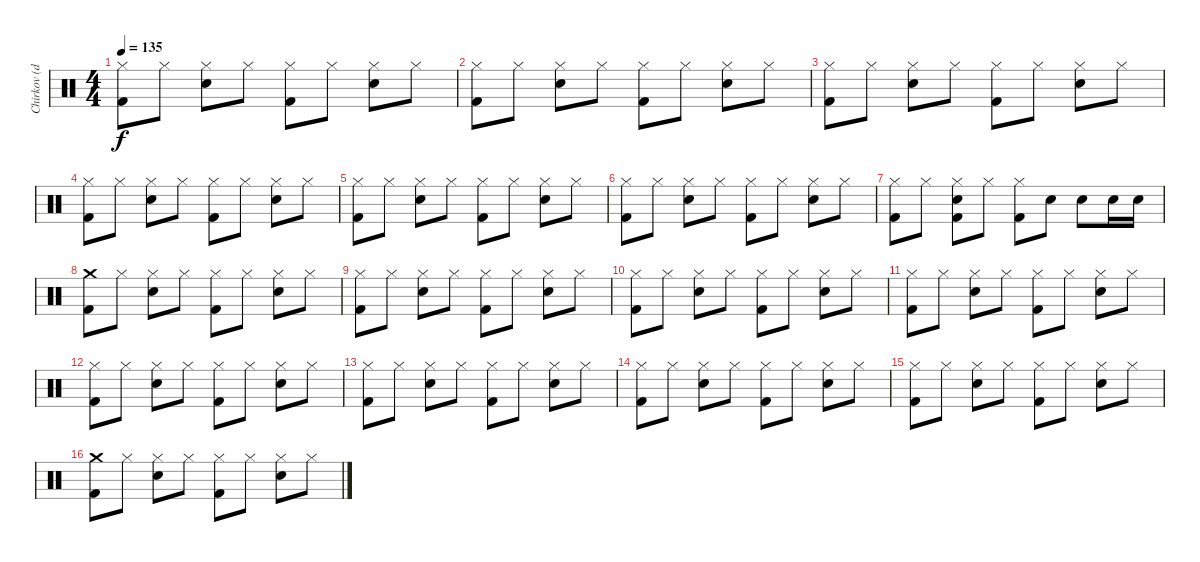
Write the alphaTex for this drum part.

\track ("Chirkov (drums)" "Chirkov (d") {instrument percussion}
\staff {score}
\articulation defaults
\ts (4 4)
\tempo 135
\clef neutral
\ks c
("Hi-Hat (closed)" "Kick (hit) 2").8{dy f} "Hi-Hat (closed)".8 ("Hi-Hat (closed)" "Snare (hit) 2").8 "Hi-Hat (closed)".8 ("Hi-Hat (closed)" "Kick (hit) 2").8 "Hi-Hat (closed)".8 ("Hi-Hat (closed)" "Snare (hit) 2").8 "Hi-Hat (closed)".8 |
("Hi-Hat (closed)" "Kick (hit) 2").8 "Hi-Hat (closed)".8 ("Hi-Hat (closed)" "Snare (hit) 2").8 "Hi-Hat (closed)".8 ("Hi-Hat (closed)" "Kick (hit) 2").8 "Hi-Hat (closed)".8 ("Hi-Hat (closed)" "Snare (hit) 2").8 "Hi-Hat (closed)".8 |
("Hi-Hat (closed)" "Kick (hit) 2").8 "Hi-Hat (closed)".8 ("Hi-Hat (closed)" "Snare (hit) 2").8 "Hi-Hat (closed)".8 ("Hi-Hat (closed)" "Kick (hit) 2").8 "Hi-Hat (closed)".8 ("Hi-Hat (closed)" "Snare (hit) 2").8 "Hi-Hat (closed)".8 |
("Hi-Hat (closed)" "Kick (hit) 2").8 "Hi-Hat (closed)".8 ("Hi-Hat (closed)" "Snare (hit) 2").8 "Hi-Hat (closed)".8 ("Hi-Hat (closed)" "Kick (hit) 2").8 "Hi-Hat (closed)".8 ("Hi-Hat (closed)" "Snare (hit) 2").8 "Hi-Hat (closed)".8 |
("Hi-Hat (closed)" "Kick (hit) 2").8 "Hi-Hat (closed)".8 ("Hi-Hat (closed)" "Snare (hit) 2").8 "Hi-Hat (closed)".8 ("Hi-Hat (closed)" "Kick (hit) 2").8 "Hi-Hat (closed)".8 ("Hi-Hat (closed)" "Snare (hit) 2").8 "Hi-Hat (closed)".8 |
("Hi-Hat (closed)" "Kick (hit) 2").8 "Hi-Hat (closed)".8 ("Hi-Hat (closed)" "Snare (hit) 2").8 "Hi-Hat (closed)".8 ("Hi-Hat (closed)" "Kick (hit) 2").8 "Hi-Hat (closed)".8 ("Hi-Hat (closed)" "Snare (hit) 2").8 "Hi-Hat (closed)".8 |
("Hi-Hat (closed)" "Kick (hit) 2").8 "Hi-Hat (closed)".8 ("Hi-Hat (closed)" "Snare (hit) 2" "Kick (hit) 2").8 "Hi-Hat (closed)".8 ("Hi-Hat (closed)" "Kick (hit) 2").8 "Snare (hit) 2".8 "Snare (hit) 2".8 "Snare (hit) 2".16 "Snare (hit) 2".16 |
("Crash medium (hit)" "Kick (hit) 2").8 "Hi-Hat (closed)".8 ("Hi-Hat (closed)" "Snare (hit) 2").8 "Hi-Hat (closed)".8 ("Hi-Hat (closed)" "Kick (hit) 2").8 "Hi-Hat (closed)".8 ("Hi-Hat (closed)" "Snare (hit) 2").8 "Hi-Hat (closed)".8 |
("Hi-Hat (closed)" "Kick (hit) 2").8 "Hi-Hat (closed)".8 ("Hi-Hat (closed)" "Snare (hit) 2").8 "Hi-Hat (closed)".8 ("Hi-Hat (closed)" "Kick (hit) 2").8 "Hi-Hat (closed)".8 ("Hi-Hat (closed)" "Snare (hit) 2").8 "Hi-Hat (closed)".8 |
("Hi-Hat (closed)" "Kick (hit) 2").8 "Hi-Hat (closed)".8 ("Hi-Hat (closed)" "Snare (hit) 2").8 "Hi-Hat (closed)".8 ("Hi-Hat (closed)" "Kick (hit) 2").8 "Hi-Hat (closed)".8 ("Hi-Hat (closed)" "Snare (hit) 2").8 "Hi-Hat (closed)".8 |
("Hi-Hat (closed)" "Kick (hit) 2").8 "Hi-Hat (closed)".8 ("Hi-Hat (closed)" "Snare (hit) 2").8 "Hi-Hat (closed)".8 ("Hi-Hat (closed)" "Kick (hit) 2").8 "Hi-Hat (closed)".8 ("Hi-Hat (closed)" "Snare (hit) 2").8 "Hi-Hat (closed)".8 |
("Hi-Hat (closed)" "Kick (hit) 2").8 "Hi-Hat (closed)".8 ("Hi-Hat (closed)" "Snare (hit) 2").8 "Hi-Hat (closed)".8 ("Hi-Hat (closed)" "Kick (hit) 2").8 "Hi-Hat (closed)".8 ("Hi-Hat (closed)" "Snare (hit) 2").8 "Hi-Hat (closed)".8 |
("Hi-Hat (closed)" "Kick (hit) 2").8 "Hi-Hat (closed)".8 ("Hi-Hat (closed)" "Snare (hit) 2").8 "Hi-Hat (closed)".8 ("Hi-Hat (closed)" "Kick (hit) 2").8 "Hi-Hat (closed)".8 ("Hi-Hat (closed)" "Snare (hit) 2").8 "Hi-Hat (closed)".8 |
("Hi-Hat (closed)" "Kick (hit) 2").8 "Hi-Hat (closed)".8 ("Hi-Hat (closed)" "Snare (hit) 2").8 "Hi-Hat (closed)".8 ("Hi-Hat (closed)" "Kick (hit) 2").8 "Hi-Hat (closed)".8 ("Hi-Hat (closed)" "Snare (hit) 2").8 "Hi-Hat (closed)".8 |
("Hi-Hat (closed)" "Kick (hit) 2").8 "Hi-Hat (closed)".8 ("Hi-Hat (closed)" "Snare (hit) 2").8 "Hi-Hat (closed)".8 ("Hi-Hat (closed)" "Kick (hit) 2").8 "Hi-Hat (closed)".8 ("Hi-Hat (closed)" "Snare (hit) 2").8 "Hi-Hat (closed)".8 |
("Crash medium (hit)" "Kick (hit) 2").8 "Hi-Hat (closed)".8 ("Hi-Hat (closed)" "Snare (hit) 2").8 "Hi-Hat (closed)".8 ("Hi-Hat (closed)" "Kick (hit) 2").8 "Hi-Hat (closed)".8 ("Hi-Hat (closed)" "Snare (hit) 2").8 "Hi-Hat (closed)".8
